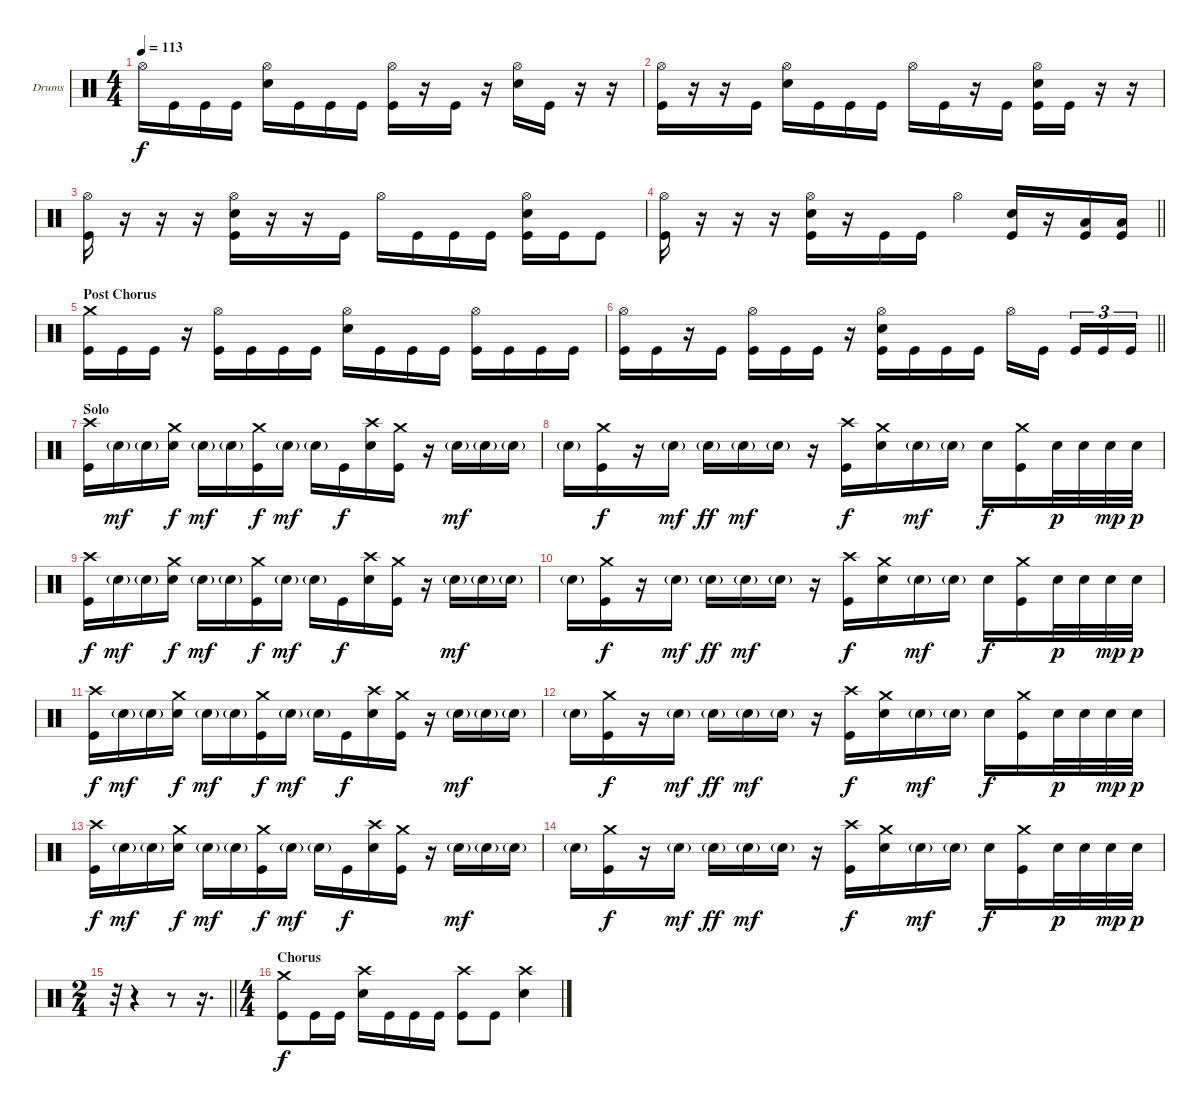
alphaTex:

\bracketExtendMode groupsimilarinstruments
\firstSystemTrackNameOrientation horizontal
\otherSystemsTrackNameOrientation horizontal
\track ("Drumkit" "Drums") {instrument percussion}
\staff {score}
\articulation defaults
\ts (4 4)
\tempo 113
\clef neutral
\ks c "Hi-Hat (open)".16{dy f} "Kick (hit)".16 "Kick (hit)".16 "Kick (hit)".16
("Hi-Hat (open)" "Snare (hit) 2").16 "Kick (hit)".16 "Kick (hit)".16 "Kick (hit)".16 ("Hi-Hat (open)" "Kick (hit)").16 r.16 "Kick (hit)".16 r.16 ("Hi-Hat (open)" "Snare (hit) 2").16 "Kick (hit)".16 r.16 r.16 |
("Hi-Hat (open)" "Kick (hit)").16 r.16 r.16 "Kick (hit)".16 ("Hi-Hat (open)" "Snare (hit) 2").16 "Kick (hit)".16 "Kick (hit)".16 "Kick (hit)".16 "Hi-Hat (open)".16 "Kick (hit)".16 r.16 "Kick (hit)".16 ("Hi-Hat (open)" "Snare (hit) 2" "Kick (hit)").16 "Kick (hit)".16 r.16 r.16 |
("Hi-Hat (open)" "Kick (hit)").16 r.16 r.16 r.16 ("Hi-Hat (open)" "Snare (hit) 2" "Kick (hit)").16 r.16 r.16 "Kick (hit)".16 "Hi-Hat (open)".16 "Kick (hit)".16 "Kick (hit)".16 "Kick (hit)".16 ("Hi-Hat (open)" "Snare (hit) 2" "Kick (hit)").16 "Kick (hit)".16 "Kick (hit)".8 |
\barLineRight lightlight
("Hi-Hat (open)" "Kick (hit)").16 r.16 r.16 r.16 ("Hi-Hat (open)" "Snare (hit) 2" "Kick (hit)").16 r.16 "Kick (hit)".16 "Kick (hit)".16 "Hi-Hat (open)".4 ("Snare (hit) 2" "Kick (hit)").16 r.16 ("Low Tom (hit)" "Kick (hit)").16 ("Low Tom (hit)" "Kick (hit)").16 |
\section ("" "Post Chorus")
("Crash medium (hit)" "Kick (hit)").16 "Kick (hit)".16 "Kick (hit)".16 r.16 ("Hi-Hat (open)" "Kick (hit)").16 "Kick (hit)".16 "Kick (hit)".16 "Kick (hit)".16 ("Hi-Hat (open)" "Snare (hit) 2").16 "Kick (hit)".16 "Kick (hit)".16 "Kick (hit)".16 ("Hi-Hat (open)" "Kick (hit)").16 "Kick (hit)".16 "Kick (hit)".16 "Kick (hit)".16 |
\barLineRight lightlight
("Hi-Hat (open)" "Kick (hit)").16 "Kick (hit)".16 r.16 "Kick (hit)".16 ("Hi-Hat (open)" "Kick (hit)").16 "Kick (hit)".16 "Kick (hit)".16 r.16 ("Hi-Hat (open)" "Snare (hit) 2" "Kick (hit)").16 "Kick (hit)".16 "Kick (hit)".16 "Kick (hit)".16 "Hi-Hat (open)".16 "Kick (hit)".16 "Kick (hit)".16{tu (3 2)} "Kick (hit)".16{tu (3 2)} "Kick (hit)".16{tu (3 2)} |
\section ("" "Solo")
("Crash high (hit)" "Kick (hit)").16 "Snare (hit) 2"{g}.16{dy mf} "Snare (hit) 2"{g}.16 ("Crash medium (hit)" "Snare (hit) 2").16{dy f} "Snare (hit) 2"{g}.16{dy mf} "Snare (hit) 2"{g}.16 ("Crash medium (hit)" "Kick (hit)").16{dy f} "Snare (hit) 2"{g}.16{dy mf} "Snare (hit) 2"{g}.16 "Kick (hit)".16{dy f} ("Crash high (hit)" "Snare (hit) 2").16 ("Crash medium (hit)" "Kick (hit)").16 r.16 "Snare (hit) 2"{g}.16{dy mf} "Snare (hit) 2"{g}.16 "Snare (hit) 2"{g}.16 |
"Snare (hit) 2"{g}.16 ("Crash medium (hit)" "Kick (hit)").16{dy f} r.16 "Snare (hit) 2"{g}.16{dy mf} "Snare (hit) 2"{g}.16{dy ff} "Snare (hit) 2"{g}.16{dy mf} "Snare (hit) 2"{g}.16 r.16 ("Crash high (hit)" "Kick (hit)").16{dy f} ("Crash medium (hit)" "Snare (hit) 2").16 "Snare (hit) 2"{g}.16{dy mf} "Snare (hit) 2"{g}.16 "Snare (hit) 2".16{dy f} ("Crash medium (hit)" "Kick (hit)").16 "Snare (hit) 2".32{dy p} "Snare (hit) 2".32 "Snare (hit) 2".32{dy mp} "Snare (hit) 2".32{dy p} |
("Crash high (hit)" "Kick (hit)").16{dy f} "Snare (hit) 2"{g}.16{dy mf} "Snare (hit) 2"{g}.16 ("Crash medium (hit)" "Snare (hit) 2").16{dy f} "Snare (hit) 2"{g}.16{dy mf} "Snare (hit) 2"{g}.16 ("Crash medium (hit)" "Kick (hit)").16{dy f} "Snare (hit) 2"{g}.16{dy mf} "Snare (hit) 2"{g}.16 "Kick (hit)".16{dy f} ("Crash high (hit)" "Snare (hit) 2").16 ("Crash medium (hit)" "Kick (hit)").16 r.16 "Snare (hit) 2"{g}.16{dy mf} "Snare (hit) 2"{g}.16 "Snare (hit) 2"{g}.16 |
"Snare (hit) 2"{g}.16 ("Crash medium (hit)" "Kick (hit)").16{dy f} r.16 "Snare (hit) 2"{g}.16{dy mf} "Snare (hit) 2"{g}.16{dy ff} "Snare (hit) 2"{g}.16{dy mf} "Snare (hit) 2"{g}.16 r.16 ("Crash high (hit)" "Kick (hit)").16{dy f} ("Crash medium (hit)" "Snare (hit) 2").16 "Snare (hit) 2"{g}.16{dy mf} "Snare (hit) 2"{g}.16 "Snare (hit) 2".16{dy f} ("Crash medium (hit)" "Kick (hit)").16 "Snare (hit) 2".32{dy p} "Snare (hit) 2".32 "Snare (hit) 2".32{dy mp} "Snare (hit) 2".32{dy p} |
("Crash high (hit)" "Kick (hit)").16{dy f} "Snare (hit) 2"{g}.16{dy mf} "Snare (hit) 2"{g}.16 ("Crash medium (hit)" "Snare (hit) 2").16{dy f} "Snare (hit) 2"{g}.16{dy mf} "Snare (hit) 2"{g}.16 ("Crash medium (hit)" "Kick (hit)").16{dy f} "Snare (hit) 2"{g}.16{dy mf} "Snare (hit) 2"{g}.16 "Kick (hit)".16{dy f} ("Crash high (hit)" "Snare (hit) 2").16 ("Crash medium (hit)" "Kick (hit)").16 r.16 "Snare (hit) 2"{g}.16{dy mf} "Snare (hit) 2"{g}.16 "Snare (hit) 2"{g}.16 |
"Snare (hit) 2"{g}.16 ("Crash medium (hit)" "Kick (hit)").16{dy f} r.16 "Snare (hit) 2"{g}.16{dy mf} "Snare (hit) 2"{g}.16{dy ff} "Snare (hit) 2"{g}.16{dy mf} "Snare (hit) 2"{g}.16 r.16 ("Crash high (hit)" "Kick (hit)").16{dy f} ("Crash medium (hit)" "Snare (hit) 2").16 "Snare (hit) 2"{g}.16{dy mf} "Snare (hit) 2"{g}.16 "Snare (hit) 2".16{dy f} ("Crash medium (hit)" "Kick (hit)").16 "Snare (hit) 2".32{dy p} "Snare (hit) 2".32 "Snare (hit) 2".32{dy mp} "Snare (hit) 2".32{dy p} |
("Crash high (hit)" "Kick (hit)").16{dy f} "Snare (hit) 2"{g}.16{dy mf} "Snare (hit) 2"{g}.16 ("Crash medium (hit)" "Snare (hit) 2").16{dy f} "Snare (hit) 2"{g}.16{dy mf} "Snare (hit) 2"{g}.16 ("Crash medium (hit)" "Kick (hit)").16{dy f} "Snare (hit) 2"{g}.16{dy mf} "Snare (hit) 2"{g}.16 "Kick (hit)".16{dy f} ("Crash high (hit)" "Snare (hit) 2").16 ("Crash medium (hit)" "Kick (hit)").16 r.16 "Snare (hit) 2"{g}.16{dy mf} "Snare (hit) 2"{g}.16 "Snare (hit) 2"{g}.16 |
"Snare (hit) 2"{g}.16 ("Crash medium (hit)" "Kick (hit)").16{dy f} r.16 "Snare (hit) 2"{g}.16{dy mf} "Snare (hit) 2"{g}.16{dy ff} "Snare (hit) 2"{g}.16{dy mf} "Snare (hit) 2"{g}.16 r.16 ("Crash high (hit)" "Kick (hit)").16{dy f} ("Crash medium (hit)" "Snare (hit) 2").16 "Snare (hit) 2"{g}.16{dy mf} "Snare (hit) 2"{g}.16 "Snare (hit) 2".16{dy f} ("Crash medium (hit)" "Kick (hit)").16 "Snare (hit) 2".32{dy p} "Snare (hit) 2".32 "Snare (hit) 2".32{dy mp} "Snare (hit) 2".32{dy p} |
\ts (2 4)
\beaming (8 2 2)
\barLineRight lightlight
r.32 r.4 r.8 r.16{d} |
\ts (4 4)
\beaming (8 2 2 2 2)
\section ("" "Chorus")
("Crash medium (hit)" "Kick (hit)").8{dy f} "Kick (hit)".16 "Kick (hit)".16 ("Crash high (hit)" "Snare (hit) 2").16 "Kick (hit)".16 "Kick (hit)".16 "Kick (hit)".16 ("Crash high (hit)" "Kick (hit)").8 "Kick (hit)".8 ("Crash high (hit)" "Snare (hit) 2").4
